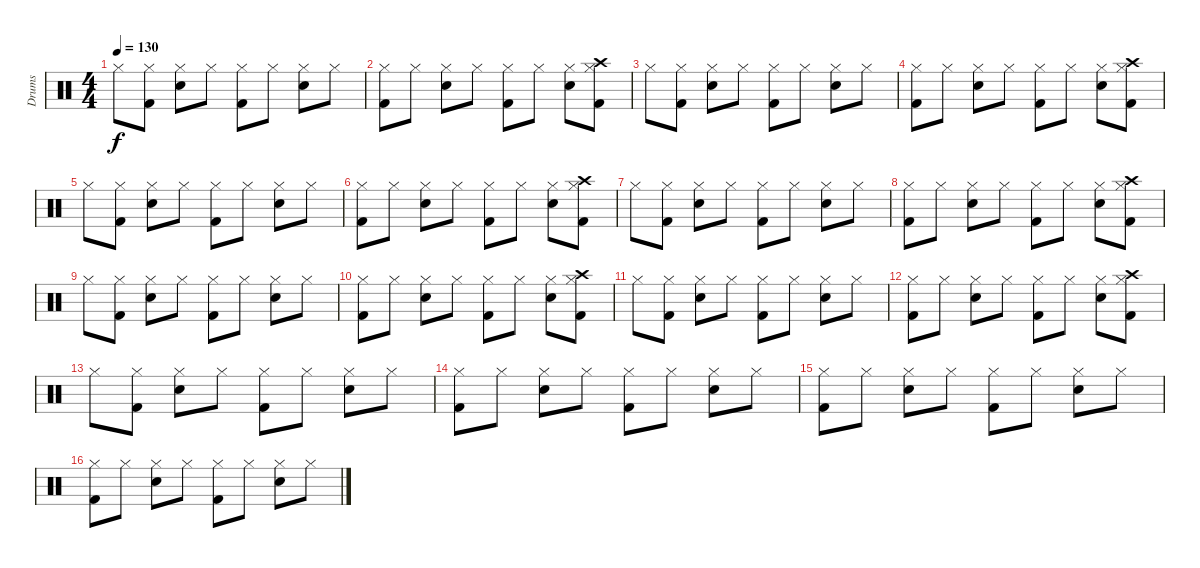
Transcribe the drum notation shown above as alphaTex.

\track ("Drums" "Drums") {instrument percussion}
\staff {score}
\articulation defaults
\ts (4 4)
\tempo 130
\clef neutral
\ks c "Hi-Hat (closed)".8{dy f}
("Kick (hit) 2" "Hi-Hat (closed)").8 ("Snare (hit) 2" "Hi-Hat (closed)").8 "Hi-Hat (closed)".8 ("Kick (hit) 2" "Hi-Hat (closed)").8 "Hi-Hat (closed)".8 ("Snare (hit) 2" "Hi-Hat (closed)").8 "Hi-Hat (closed)".8 |
("Kick (hit) 2" "Hi-Hat (closed)").8 "Hi-Hat (closed)".8 ("Snare (hit) 2" "Hi-Hat (closed)").8 "Hi-Hat (closed)".8 ("Kick (hit) 2" "Hi-Hat (closed)").8 "Hi-Hat (closed)".8 ("Snare (hit) 2" "Hi-Hat (closed)").8 ("Kick (hit) 2" "Hi-Hat (closed)" "Crash high (hit)").8 |
"Hi-Hat (closed)".8 ("Kick (hit) 2" "Hi-Hat (closed)").8 ("Snare (hit) 2" "Hi-Hat (closed)").8 "Hi-Hat (closed)".8 ("Kick (hit) 2" "Hi-Hat (closed)").8 "Hi-Hat (closed)".8 ("Snare (hit) 2" "Hi-Hat (closed)").8 "Hi-Hat (closed)".8 |
("Kick (hit) 2" "Hi-Hat (closed)").8 "Hi-Hat (closed)".8 ("Snare (hit) 2" "Hi-Hat (closed)").8 "Hi-Hat (closed)".8 ("Kick (hit) 2" "Hi-Hat (closed)").8 "Hi-Hat (closed)".8 ("Snare (hit) 2" "Hi-Hat (closed)").8 ("Kick (hit) 2" "Hi-Hat (closed)" "Crash high (hit)").8 |
"Hi-Hat (closed)".8 ("Kick (hit) 2" "Hi-Hat (closed)").8 ("Snare (hit) 2" "Hi-Hat (closed)").8 "Hi-Hat (closed)".8 ("Kick (hit) 2" "Hi-Hat (closed)").8 "Hi-Hat (closed)".8 ("Snare (hit) 2" "Hi-Hat (closed)").8 "Hi-Hat (closed)".8 |
("Kick (hit) 2" "Hi-Hat (closed)").8 "Hi-Hat (closed)".8 ("Snare (hit) 2" "Hi-Hat (closed)").8 "Hi-Hat (closed)".8 ("Kick (hit) 2" "Hi-Hat (closed)").8 "Hi-Hat (closed)".8 ("Snare (hit) 2" "Hi-Hat (closed)").8 ("Kick (hit) 2" "Hi-Hat (closed)" "Crash high (hit)").8 |
"Hi-Hat (closed)".8 ("Kick (hit) 2" "Hi-Hat (closed)").8 ("Snare (hit) 2" "Hi-Hat (closed)").8 "Hi-Hat (closed)".8 ("Kick (hit) 2" "Hi-Hat (closed)").8 "Hi-Hat (closed)".8 ("Snare (hit) 2" "Hi-Hat (closed)").8 "Hi-Hat (closed)".8 |
("Kick (hit) 2" "Hi-Hat (closed)").8 "Hi-Hat (closed)".8 ("Snare (hit) 2" "Hi-Hat (closed)").8 "Hi-Hat (closed)".8 ("Kick (hit) 2" "Hi-Hat (closed)").8 "Hi-Hat (closed)".8 ("Snare (hit) 2" "Hi-Hat (closed)").8 ("Kick (hit) 2" "Hi-Hat (closed)" "Crash high (hit)").8 |
"Hi-Hat (closed)".8 ("Kick (hit) 2" "Hi-Hat (closed)").8 ("Snare (hit) 2" "Hi-Hat (closed)").8 "Hi-Hat (closed)".8 ("Kick (hit) 2" "Hi-Hat (closed)").8 "Hi-Hat (closed)".8 ("Snare (hit) 2" "Hi-Hat (closed)").8 "Hi-Hat (closed)".8 |
("Kick (hit) 2" "Hi-Hat (closed)").8 "Hi-Hat (closed)".8 ("Snare (hit) 2" "Hi-Hat (closed)").8 "Hi-Hat (closed)".8 ("Kick (hit) 2" "Hi-Hat (closed)").8 "Hi-Hat (closed)".8 ("Snare (hit) 2" "Hi-Hat (closed)").8 ("Kick (hit) 2" "Hi-Hat (closed)" "Crash high (hit)").8 |
"Hi-Hat (closed)".8 ("Kick (hit) 2" "Hi-Hat (closed)").8 ("Snare (hit) 2" "Hi-Hat (closed)").8 "Hi-Hat (closed)".8 ("Kick (hit) 2" "Hi-Hat (closed)").8 "Hi-Hat (closed)".8 ("Snare (hit) 2" "Hi-Hat (closed)").8 "Hi-Hat (closed)".8 |
("Kick (hit) 2" "Hi-Hat (closed)").8 "Hi-Hat (closed)".8 ("Snare (hit) 2" "Hi-Hat (closed)").8 "Hi-Hat (closed)".8 ("Kick (hit) 2" "Hi-Hat (closed)").8 "Hi-Hat (closed)".8 ("Snare (hit) 2" "Hi-Hat (closed)").8 ("Kick (hit) 2" "Hi-Hat (closed)" "Crash high (hit)").8 |
"Hi-Hat (closed)".8 ("Kick (hit) 2" "Hi-Hat (closed)").8 ("Snare (hit) 2" "Hi-Hat (closed)").8 "Hi-Hat (closed)".8 ("Kick (hit) 2" "Hi-Hat (closed)").8 "Hi-Hat (closed)".8 ("Snare (hit) 2" "Hi-Hat (closed)").8 "Hi-Hat (closed)".8 |
("Kick (hit) 2" "Hi-Hat (closed)").8 "Hi-Hat (closed)".8 ("Snare (hit) 2" "Hi-Hat (closed)").8 "Hi-Hat (closed)".8 ("Kick (hit) 2" "Hi-Hat (closed)").8 "Hi-Hat (closed)".8 ("Snare (hit) 2" "Hi-Hat (closed)").8 "Hi-Hat (closed)".8 |
("Kick (hit) 2" "Hi-Hat (closed)").8 "Hi-Hat (closed)".8 ("Snare (hit) 2" "Hi-Hat (closed)").8 "Hi-Hat (closed)".8 ("Kick (hit) 2" "Hi-Hat (closed)").8 "Hi-Hat (closed)".8 ("Snare (hit) 2" "Hi-Hat (closed)").8 "Hi-Hat (closed)".8 |
("Kick (hit) 2" "Hi-Hat (closed)").8 "Hi-Hat (closed)".8 ("Snare (hit) 2" "Hi-Hat (closed)").8 "Hi-Hat (closed)".8 ("Kick (hit) 2" "Hi-Hat (closed)").8 "Hi-Hat (closed)".8 ("Snare (hit) 2" "Hi-Hat (closed)").8 "Hi-Hat (closed)".8
